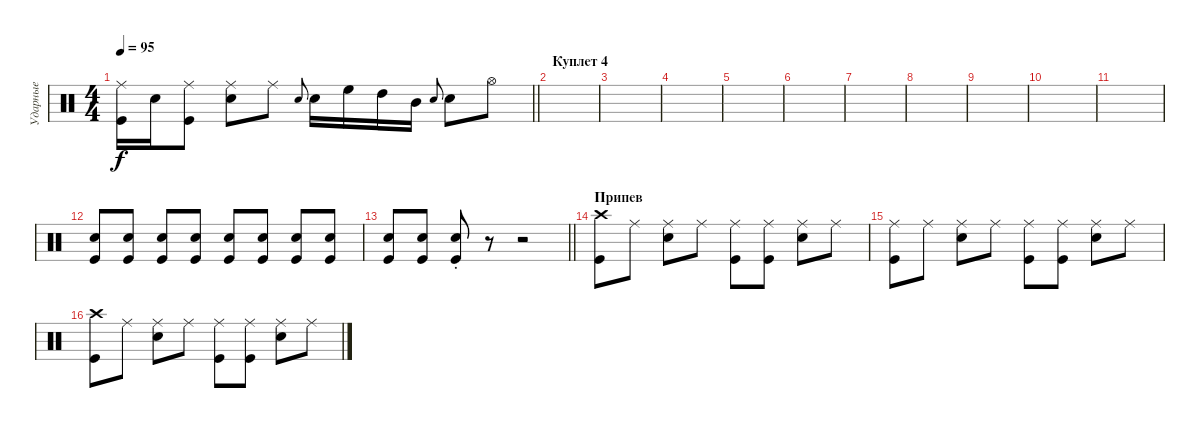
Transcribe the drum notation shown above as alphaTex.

\track ("Ударные" "Ударные") {instrument percussion}
\staff {score}
\articulation defaults
\ts (4 4)
\tempo 95
\clef neutral
\barLineRight lightlight
\ks c
("Ride (middle)" "Kick (hit)").16{dy f} "Snare (hit) 2".16 ("Ride (middle)" "Kick (hit)").8 ("Ride (middle)" "Snare (hit) 2").8 "Ride (middle)".8 "Snare (hit) 2".8{gr onbeat} "Snare (hit) 2".16 "High Floor Tom (hit)".16 "High Tom (hit)".16 "Mid Tom (hit)".16 "Snare (hit) 2".8{gr onbeat} "Snare (hit) 2".8 "Hi-Hat (open)".8 |
\section ("" "Куплет 4")
|
|
|
|
|
|
|
|
|
|
("Snare (hit) 2" "Kick (hit)").8 ("Snare (hit) 2" "Kick (hit)").8 ("Snare (hit) 2" "Kick (hit)").8 ("Snare (hit) 2" "Kick (hit)").8 ("Snare (hit) 2" "Kick (hit)").8 ("Snare (hit) 2" "Kick (hit)").8 ("Snare (hit) 2" "Kick (hit)").8 ("Snare (hit) 2" "Kick (hit)").8 |
\barLineRight lightlight
("Snare (hit) 2" "Kick (hit)").8 ("Snare (hit) 2" "Kick (hit)").8 ("Snare (hit) 2"{st} "Kick (hit)"{st}).8 r.8 r.2 |
\section ("" "Припев")
("Crash high (hit)" "Kick (hit)").8{volume 16} "Ride (middle)".8 ("Ride (middle)" "Snare (hit) 2").8 "Ride (middle)".8 ("Ride (middle)" "Kick (hit)").8 ("Ride (middle)" "Kick (hit)").8 ("Ride (middle)" "Snare (hit) 2").8 "Ride (middle)".8 |
("Ride (middle)" "Kick (hit)").8 "Ride (middle)".8 ("Ride (middle)" "Snare (hit) 2").8 "Ride (middle)".8 ("Ride (middle)" "Kick (hit)").8 ("Ride (middle)" "Kick (hit)").8 ("Ride (middle)" "Snare (hit) 2").8 "Ride (middle)".8 |
("Crash high (hit)" "Kick (hit)").8 "Ride (middle)".8 ("Ride (middle)" "Snare (hit) 2").8 "Ride (middle)".8 ("Ride (middle)" "Kick (hit)").8 ("Ride (middle)" "Kick (hit)").8 ("Ride (middle)" "Snare (hit) 2").8 "Ride (middle)".8
